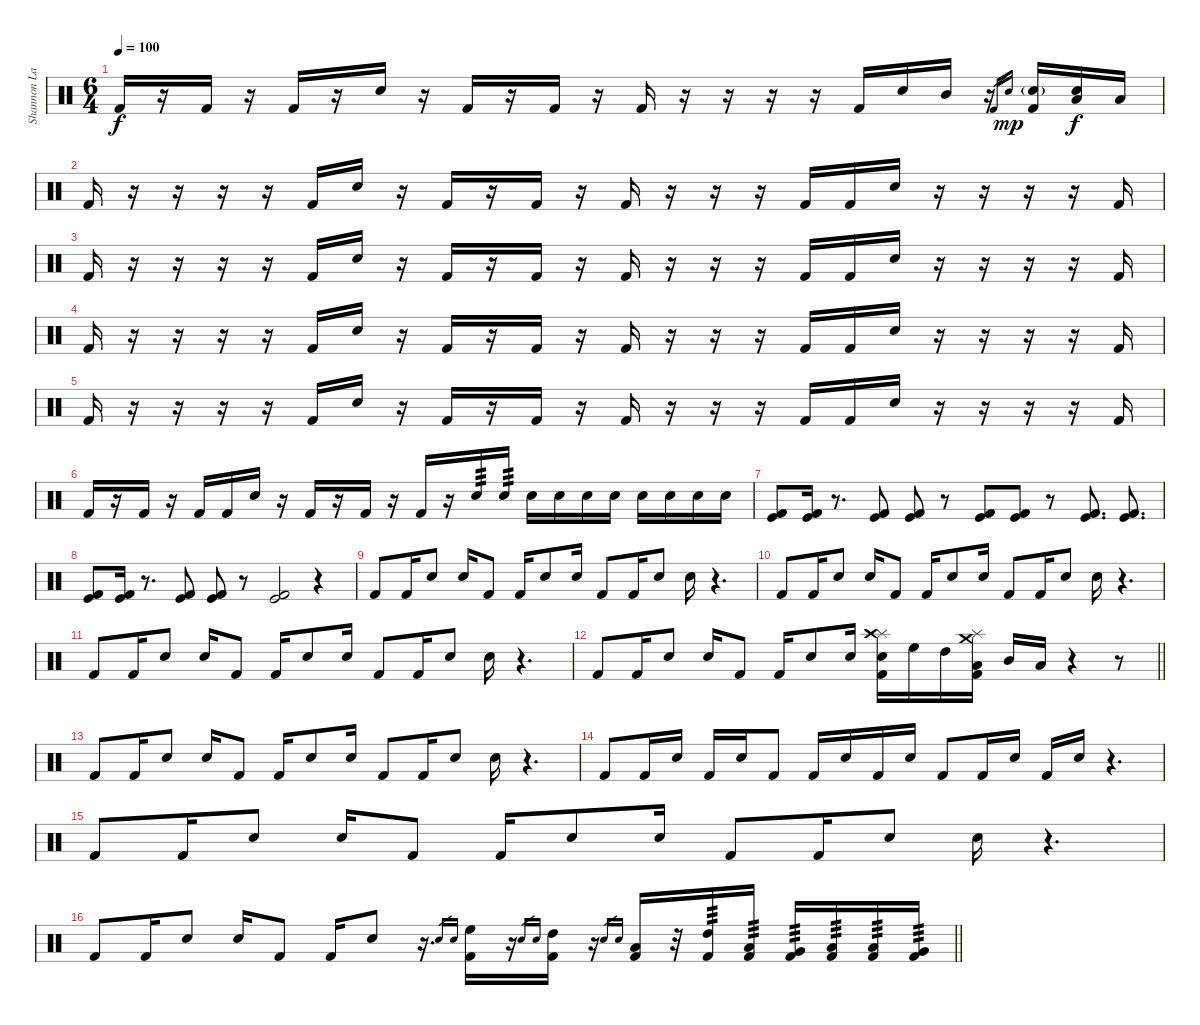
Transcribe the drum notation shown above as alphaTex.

\track ("Shannon Larkin [2]" "Shannon La") {instrument percussion}
\staff {score}
\articulation defaults
\ts (6 4)
\tempo 100
\clef neutral
\ks c "Kick (hit) 2".16{dy f}
r.16 "Kick (hit) 2".16 r.16 "Kick (hit) 2".16 r.16 "Electric Snare (hit)".16 r.16 "Kick (hit) 2".16 r.16 "Kick (hit) 2".16 r.16 "Kick (hit) 2".16 r.16 r.16 r.16 r.16 "Kick (hit) 2".16 "Electric Snare (hit)".16 "Mid Tom (hit)".16 r.16 "Kick (hit) 2".16{gr} "Electric Snare (hit)".16{gr dy mp} ("Kick (hit) 2" "Electric Snare (hit)"{g}).16 ("Low Tom (hit)" "Electric Snare (hit)").16{dy f} "Low Floor Tom (hit)".16 |
"Kick (hit) 2".16 r.16 r.16 r.16 r.16 "Kick (hit) 2".16 "Electric Snare (hit)".16 r.16 "Kick (hit) 2".16 r.16 "Kick (hit) 2".16 r.16 "Kick (hit) 2".16 r.16 r.16 r.16 "Kick (hit) 2".16 "Kick (hit) 2".16 "Electric Snare (hit)".16 r.16 r.16 r.16 r.16 "Kick (hit) 2".16 |
"Kick (hit) 2".16 r.16 r.16 r.16 r.16 "Kick (hit) 2".16 "Electric Snare (hit)".16 r.16 "Kick (hit) 2".16 r.16 "Kick (hit) 2".16 r.16 "Kick (hit) 2".16 r.16 r.16 r.16 "Kick (hit) 2".16 "Kick (hit) 2".16 "Electric Snare (hit)".16 r.16 r.16 r.16 r.16 "Kick (hit) 2".16 |
"Kick (hit) 2".16 r.16 r.16 r.16 r.16 "Kick (hit) 2".16 "Electric Snare (hit)".16 r.16 "Kick (hit) 2".16 r.16 "Kick (hit) 2".16 r.16 "Kick (hit) 2".16 r.16 r.16 r.16 "Kick (hit) 2".16 "Kick (hit) 2".16 "Electric Snare (hit)".16 r.16 r.16 r.16 r.16 "Kick (hit) 2".16 |
"Kick (hit) 2".16 r.16 r.16 r.16 r.16 "Kick (hit) 2".16 "Electric Snare (hit)".16 r.16 "Kick (hit) 2".16 r.16 "Kick (hit) 2".16 r.16 "Kick (hit) 2".16 r.16 r.16 r.16 "Kick (hit) 2".16 "Kick (hit) 2".16 "Electric Snare (hit)".16 r.16 r.16 r.16 r.16 "Kick (hit) 2".16 |
"Kick (hit) 2".16 r.16 "Kick (hit) 2".16 r.16 "Kick (hit) 2".16 "Kick (hit) 2".16 "Electric Snare (hit)".16 r.16 "Kick (hit) 2".16 r.16 "Kick (hit) 2".16 r.16 "Kick (hit) 2".16 r.16 "Electric Snare (hit)".16{tp 3} "Electric Snare (hit)".16{tp 3} "Electric Snare (hit)".16 "Electric Snare (hit)".16 "Electric Snare (hit)".16 "Electric Snare (hit)".16 "Electric Snare (hit)".16 "Electric Snare (hit)".16 "Electric Snare (hit)".16 "Electric Snare (hit)".16 |
("Kick (hit) 2" "Kick (hit)").8 ("Kick (hit) 2" "Kick (hit)").16 r.8{d} ("Kick (hit) 2" "Kick (hit)").8 ("Kick (hit) 2" "Kick (hit)").8 r.8 ("Kick (hit) 2" "Kick (hit)").8 ("Kick (hit) 2" "Kick (hit)").8 r.8 ("Kick (hit) 2" "Kick (hit)").8{d} ("Kick (hit) 2" "Kick (hit)").8{d} |
("Kick (hit) 2" "Kick (hit)").8 ("Kick (hit) 2" "Kick (hit)").16 r.8{d} ("Kick (hit) 2" "Kick (hit)").8 ("Kick (hit) 2" "Kick (hit)").8 r.8 ("Kick (hit) 2" "Kick (hit)").2 r.4 |
"Kick (hit) 2".8 "Kick (hit) 2".16 "Electric Snare (hit)".8 "Electric Snare (hit)".16 "Kick (hit) 2".8 "Kick (hit) 2".16 "Electric Snare (hit)".8 "Electric Snare (hit)".16 "Kick (hit) 2".8 "Kick (hit) 2".16 "Electric Snare (hit)".8 "Electric Snare (hit)".16 r.4{d} |
"Kick (hit) 2".8 "Kick (hit) 2".16 "Electric Snare (hit)".8 "Electric Snare (hit)".16 "Kick (hit) 2".8 "Kick (hit) 2".16 "Electric Snare (hit)".8 "Electric Snare (hit)".16 "Kick (hit) 2".8 "Kick (hit) 2".16 "Electric Snare (hit)".8 "Electric Snare (hit)".16 r.4{d} |
"Kick (hit) 2".8 "Kick (hit) 2".16 "Electric Snare (hit)".8 "Electric Snare (hit)".16 "Kick (hit) 2".8 "Kick (hit) 2".16 "Electric Snare (hit)".8 "Electric Snare (hit)".16 "Kick (hit) 2".8 "Kick (hit) 2".16 "Electric Snare (hit)".8 "Electric Snare (hit)".16 r.4{d} |
\barLineRight lightlight "Kick (hit) 2".8 "Kick (hit) 2".16 "Electric Snare (hit)".8 "Electric Snare (hit)".16 "Kick (hit) 2".8 "Kick (hit) 2".16 "Electric Snare (hit)".8 "Electric Snare (hit)".16
("Splash (hit)" "Crash high (hit)" "Electric Snare (hit)" "Kick (hit) 2").16 "High Floor Tom (hit)".16 "High Tom (hit)".16 ("Splash (hit)" "Crash medium (hit)" "Low Tom (hit)" "Kick (hit) 2").16 "Mid Tom (hit)".16 "Low Tom (hit)".16 r.4 r.8 |
"Kick (hit) 2".8 "Kick (hit) 2".16 "Electric Snare (hit)".8 "Electric Snare (hit)".16 "Kick (hit) 2".8 "Kick (hit) 2".16 "Electric Snare (hit)".8 "Electric Snare (hit)".16 "Kick (hit) 2".8 "Kick (hit) 2".16 "Electric Snare (hit)".8 "Electric Snare (hit)".16 r.4{d} |
"Kick (hit) 2".8 "Kick (hit) 2".16 "Electric Snare (hit)".16 "Kick (hit) 2".16 "Electric Snare (hit)".16 "Kick (hit) 2".8 "Kick (hit) 2".16 "Electric Snare (hit)".16 "Kick (hit) 2".16 "Electric Snare (hit)".16 "Kick (hit) 2".8 "Kick (hit) 2".16 "Electric Snare (hit)".16 "Kick (hit) 2".16 "Electric Snare (hit)".16 r.4{d} |
"Kick (hit) 2".8 "Kick (hit) 2".16 "Electric Snare (hit)".8 "Electric Snare (hit)".16 "Kick (hit) 2".8 "Kick (hit) 2".16 "Electric Snare (hit)".8 "Electric Snare (hit)".16 "Kick (hit) 2".8 "Kick (hit) 2".16 "Electric Snare (hit)".8 "Electric Snare (hit)".16 r.4{d} |
\barLineRight lightlight "Kick (hit) 2".8 "Kick (hit) 2".16 "Electric Snare (hit)".8 "Electric Snare (hit)".16 "Kick (hit) 2".8 "Kick (hit) 2".16 "Electric Snare (hit)".8
r.16{d} "Electric Snare (hit)".16{gr} "Snare (hit) 2".16{gr} ("High Floor Tom (hit)" "Kick (hit) 2").16 r.16 "Electric Snare (hit)".16{gr} "Snare (hit) 2".16{gr} ("High Tom (hit)" "Kick (hit) 2").16 r.16 "Electric Snare (hit)".16{gr} "Snare (hit) 2".16{gr} ("Low Tom (hit)" "Kick (hit) 2").16 r.32 ("High Tom (hit)" "Kick (hit) 2").16{tp 3} ("Low Tom (hit)" "Kick (hit) 2").16{tp 3} ("Very Low Tom (hit)" "Kick (hit) 2").16{tp 3} ("Low Floor Tom (hit)" "Kick (hit) 2").16{tp 3} ("Low Tom (hit)" "Kick (hit) 2").16{tp 3} ("Very Low Tom (hit)" "Kick (hit) 2").16{tp 3}
